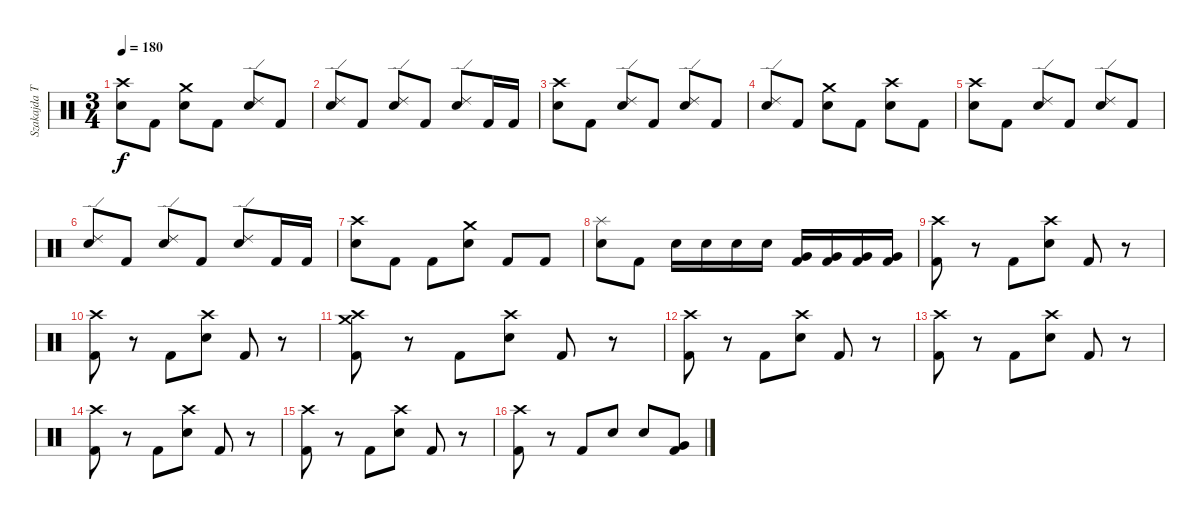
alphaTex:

\track ("Szakajda Tibi" "Szakajda T") {instrument percussion}
\staff {score}
\articulation defaults
\ts (3 4)
\tempo 180
\clef neutral
\ks c
("Crash high (hit)" "Electric Snare (hit)").8{dy f} "Kick (hit) 2".8 ("Crash medium (hit)" "Electric Snare (hit)").8 "Kick (hit) 2".8 ("Ride (edge) 2" "Electric Snare (hit)").8 "Kick (hit) 2".8 |
("Ride (edge) 2" "Electric Snare (hit)").8 "Kick (hit) 2".8 ("Ride (edge) 2" "Electric Snare (hit)").8 "Kick (hit) 2".8 ("Ride (edge) 2" "Electric Snare (hit)").8 "Kick (hit) 2".16 "Kick (hit) 2".16 |
("Crash high (hit)" "Electric Snare (hit)").8 "Kick (hit) 2".8 ("Ride (edge) 2" "Electric Snare (hit)").8 "Kick (hit) 2".8 ("Ride (edge) 2" "Electric Snare (hit)").8 "Kick (hit) 2".8 |
("Ride (edge) 2" "Electric Snare (hit)").8 "Kick (hit) 2".8 ("Crash medium (hit)" "Electric Snare (hit)").8 "Kick (hit) 2".8 ("Crash high (hit)" "Electric Snare (hit)").8 "Kick (hit) 2".8 |
("Crash high (hit)" "Electric Snare (hit)").8 "Kick (hit) 2".8 ("Ride (edge) 2" "Electric Snare (hit)").8 "Kick (hit) 2".8 ("Ride (edge) 2" "Electric Snare (hit)").8 "Kick (hit) 2".8 |
("Ride (edge) 2" "Electric Snare (hit)").8 "Kick (hit) 2".8 ("Ride (edge) 2" "Electric Snare (hit)").8 "Kick (hit) 2".8 ("Ride (edge) 2" "Electric Snare (hit)").8 "Kick (hit) 2".16 "Kick (hit) 2".16 |
("Crash high (hit)" "Electric Snare (hit)").8 "Kick (hit) 2".8 "Kick (hit) 2".8 ("Crash medium (hit)" "Electric Snare (hit)").8 "Kick (hit) 2".8 "Kick (hit) 2".8 |
("Splash (hit)" "Electric Snare (hit)").8 "Kick (hit) 2".8 "Electric Snare (hit)".16 "Electric Snare (hit)".16 "Electric Snare (hit)".16 "Electric Snare (hit)".16 ("Very Low Tom (hit)" "Kick (hit) 2").16 ("Very Low Tom (hit)" "Kick (hit) 2").16 ("Very Low Tom (hit)" "Kick (hit) 2").16 ("Very Low Tom (hit)" "Kick (hit) 2").16 |
("Crash high (hit)" "Kick (hit) 2").8 r.8 "Kick (hit) 2".8 ("Crash high (hit)" "Electric Snare (hit)").8 "Kick (hit) 2".8 r.8 |
("Crash high (hit)" "Kick (hit) 2").8 r.8 "Kick (hit) 2".8 ("Crash high (hit)" "Electric Snare (hit)").8 "Kick (hit) 2".8 r.8 |
("Crash high (hit)" "Crash medium (hit)" "Kick (hit) 2").8 r.8 "Kick (hit) 2".8 ("Crash high (hit)" "Electric Snare (hit)").8 "Kick (hit) 2".8 r.8 |
("Crash high (hit)" "Kick (hit) 2").8 r.8 "Kick (hit) 2".8 ("Crash high (hit)" "Electric Snare (hit)").8 "Kick (hit) 2".8 r.8 |
("Crash high (hit)" "Kick (hit) 2").8 r.8 "Kick (hit) 2".8 ("Crash high (hit)" "Electric Snare (hit)").8 "Kick (hit) 2".8 r.8 |
("Crash high (hit)" "Kick (hit) 2").8 r.8 "Kick (hit) 2".8 ("Crash high (hit)" "Electric Snare (hit)").8 "Kick (hit) 2".8 r.8 |
("Crash high (hit)" "Kick (hit) 2").8 r.8 "Kick (hit) 2".8 ("Crash high (hit)" "Electric Snare (hit)").8 "Kick (hit) 2".8 r.8 |
("Crash high (hit)" "Kick (hit) 2").8 r.8 "Kick (hit) 2".8 "Electric Snare (hit)".8 "Electric Snare (hit)".8 ("Very Low Tom (hit)" "Kick (hit) 2").8
